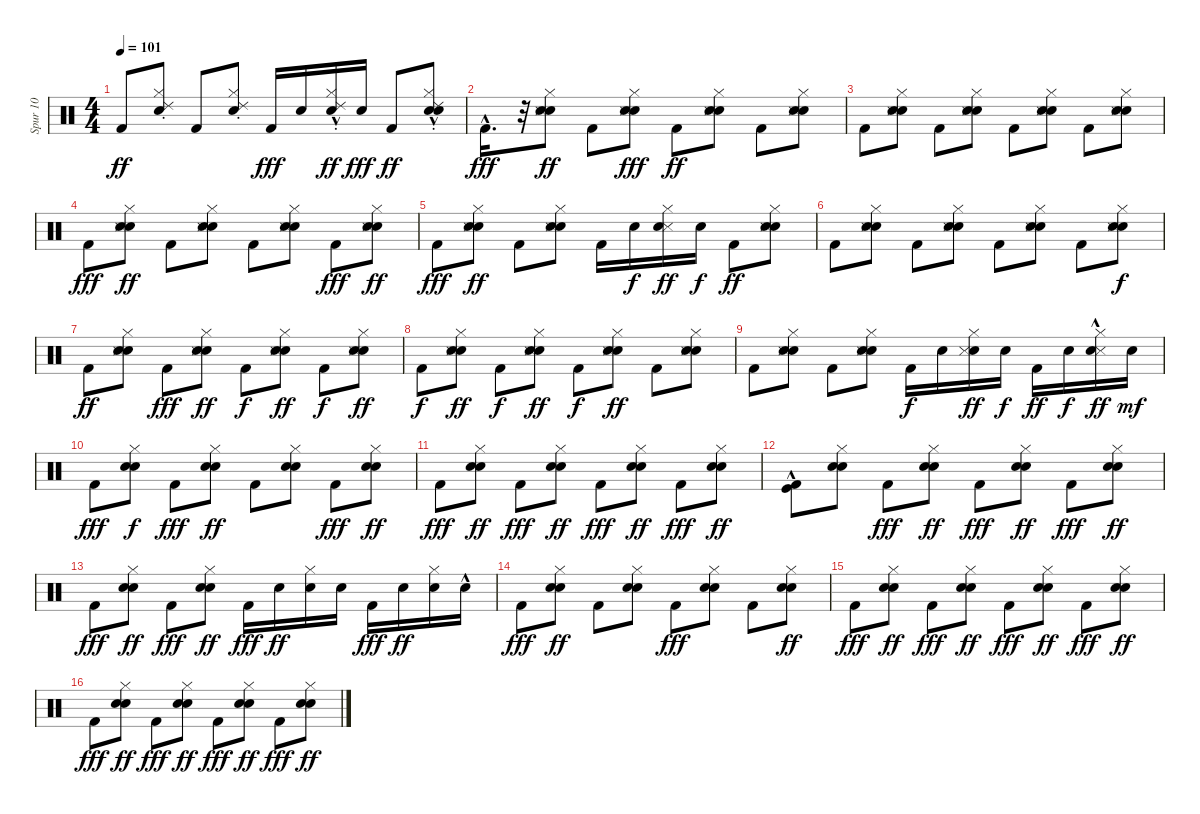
\track ("Spur 10" "Spur 10") {instrument percussion}
\staff {score}
\articulation defaults
\ts (4 4)
\tempo 101
\clef neutral
\ks c "Kick (hit) 2".8{dy ff}
("Ride (choke) 2" "Hi-Hat (closed)" "Snare (hit) 2").8 "Kick (hit) 2".8 ("Ride (choke) 2" "Hi-Hat (closed)" "Snare (hit) 2").8 "Kick (hit) 2".16{dy fff} "Snare (hit) 2".16 ("Ride (choke) 2"{hac} "Snare (hit) 2" "Hi-Hat (closed)").16{dy ff} "Snare (hit) 2".16{dy fff} "Kick (hit) 2".8{dy ff} ("Snare (hit) 2" "Ride (choke) 2"{hac} "Hi-Hat (closed)" "Snare (hit) 2").8 |
"Kick (hit) 2"{hac}.16{d dy fff} r.32 ("Snare (hit) 2" "Metronome (hit)" "Hi-Hat (closed)" "Snare (hit) 2").8{dy ff} "Kick (hit) 2".8 ("Snare (hit) 2" "Metronome (hit)" "Hi-Hat (closed)" "Snare (hit) 2").8{dy fff} "Kick (hit) 2".8{dy ff} ("Snare (hit) 2" "Metronome (hit)" "Snare (hit) 2" "Hi-Hat (closed)").8 "Kick (hit) 2".8 ("Snare (hit) 2" "Hi-Hat (closed)" "Snare (hit) 2" "Metronome (hit)").8 |
"Kick (hit) 2".8 ("Snare (hit) 2" "Hi-Hat (closed)" "Snare (hit) 2" "Metronome (hit)").8 "Kick (hit) 2".8 ("Snare (hit) 2" "Metronome (hit)" "Snare (hit) 2" "Hi-Hat (closed)").8 "Kick (hit) 2".8 ("Snare (hit) 2" "Snare (hit) 2" "Hi-Hat (closed)" "Metronome (hit)").8 "Kick (hit) 2".8 ("Snare (hit) 2" "Snare (hit) 2" "Hi-Hat (closed)" "Metronome (hit)").8 |
"Kick (hit) 2".8{dy fff} ("Snare (hit) 2" "Metronome (hit)" "Snare (hit) 2" "Hi-Hat (closed)").8{dy ff} "Kick (hit) 2".8 ("Snare (hit) 2" "Hi-Hat (closed)" "Snare (hit) 2" "Metronome (hit)").8 "Kick (hit) 2".8 ("Snare (hit) 2" "Hi-Hat (closed)" "Snare (hit) 2" "Metronome (hit)").8 "Kick (hit) 2".8{dy fff} ("Snare (hit) 2" "Metronome (hit)" "Snare (hit) 2" "Hi-Hat (closed)").8{dy ff} |
"Kick (hit) 2".8{dy fff} ("Snare (hit) 2" "Snare (hit) 2" "Hi-Hat (closed)" "Metronome (hit)").8{dy ff} "Kick (hit) 2".8 ("Snare (hit) 2" "Hi-Hat (closed)" "Snare (hit) 2" "Metronome (hit)").8 "Kick (hit) 2".16 "Snare (hit) 2".16{dy f} ("Metronome (hit)" "Hi-Hat (closed)" "Snare (hit) 2").16{dy ff} "Snare (hit) 2".16{dy f} "Kick (hit) 2".8{dy ff} ("Snare (hit) 2" "Metronome (hit)" "Hi-Hat (closed)" "Snare (hit) 2").8 |
"Kick (hit) 2".8 ("Snare (hit) 2" "Metronome (hit)" "Hi-Hat (closed)" "Snare (hit) 2").8 "Kick (hit) 2".8 ("Snare (hit) 2" "Metronome (hit)" "Hi-Hat (closed)" "Snare (hit) 2").8 "Kick (hit) 2".8 ("Snare (hit) 2" "Snare (hit) 2" "Hi-Hat (closed)" "Metronome (hit)").8 "Kick (hit) 2".8 ("Snare (hit) 2" "Metronome (hit)" "Hi-Hat (closed)" "Snare (hit) 2").8{dy f} |
"Kick (hit) 2".8{dy ff} ("Snare (hit) 2" "Metronome (hit)" "Hi-Hat (closed)" "Snare (hit) 2").8 "Kick (hit) 2".8{dy fff} ("Snare (hit) 2" "Metronome (hit)" "Hi-Hat (closed)" "Snare (hit) 2").8{dy ff} "Kick (hit) 2".8{dy f} ("Snare (hit) 2" "Metronome (hit)" "Hi-Hat (closed)" "Snare (hit) 2").8{dy ff} "Kick (hit) 2".8{dy f} ("Snare (hit) 2" "Metronome (hit)" "Hi-Hat (closed)" "Snare (hit) 2").8{dy ff} |
"Kick (hit) 2".8{dy f} ("Snare (hit) 2" "Hi-Hat (closed)" "Metronome (hit)" "Snare (hit) 2").8{dy ff} "Kick (hit) 2".8{dy f} ("Snare (hit) 2" "Snare (hit) 2" "Metronome (hit)" "Hi-Hat (closed)").8{dy ff} "Kick (hit) 2".8{dy f} ("Snare (hit) 2" "Hi-Hat (closed)" "Metronome (hit)" "Snare (hit) 2").8{dy ff} "Kick (hit) 2".8 ("Snare (hit) 2" "Hi-Hat (closed)" "Snare (hit) 2" "Metronome (hit)").8 |
"Kick (hit) 2".8 ("Snare (hit) 2" "Hi-Hat (closed)" "Snare (hit) 2" "Metronome (hit)").8 "Kick (hit) 2".8 ("Snare (hit) 2" "Hi-Hat (closed)" "Metronome (hit)" "Snare (hit) 2").8 "Kick (hit) 2".16{dy f} "Snare (hit) 2".16 ("Snare (hit) 2" "Hi-Hat (closed)" "Metronome (hit)").16{dy ff} "Snare (hit) 2".16{dy f} "Kick (hit) 2".16{dy ff} "Snare (hit) 2".16{dy f} ("Metronome (hit)" "Snare (hit) 2" "Hi-Hat (closed)"{hac}).16{dy ff} "Snare (hit) 2".16{dy mf} |
"Kick (hit) 2".8{dy fff} ("Snare (hit) 2" "Hi-Hat (closed)" "Snare (hit) 2").8{dy f} "Kick (hit) 2".8{dy fff} ("Snare (hit) 2" "Hi-Hat (closed)" "Snare (hit) 2").8{dy ff} "Kick (hit) 2".8 ("Snare (hit) 2" "Hi-Hat (closed)" "Snare (hit) 2").8 "Kick (hit) 2".8{dy fff} ("Snare (hit) 2" "Hi-Hat (closed)" "Snare (hit) 2").8{dy ff} |
"Kick (hit) 2".8{dy fff} ("Snare (hit) 2" "Snare (hit) 2" "Hi-Hat (closed)").8{dy ff} "Kick (hit) 2".8{dy fff} ("Snare (hit) 2" "Hi-Hat (closed)" "Snare (hit) 2").8{dy ff} "Kick (hit) 2".8{dy fff} ("Snare (hit) 2" "Hi-Hat (closed)" "Snare (hit) 2").8{dy ff} "Kick (hit) 2".8{dy fff} ("Snare (hit) 2" "Snare (hit) 2" "Hi-Hat (closed)").8{dy ff} |
("Kick (hit) 2" "Kick (hit)"{hac}).8 ("Snare (hit) 2" "Hi-Hat (closed)" "Snare (hit) 2").8 "Kick (hit) 2".8{dy fff} ("Snare (hit) 2" "Snare (hit) 2" "Hi-Hat (closed)").8{dy ff} "Kick (hit) 2".8{dy fff} ("Snare (hit) 2" "Snare (hit) 2" "Hi-Hat (closed)").8{dy ff} "Kick (hit) 2".8{dy fff} ("Snare (hit) 2" "Snare (hit) 2" "Hi-Hat (closed)").8{dy ff} |
"Kick (hit) 2".8{dy fff} ("Snare (hit) 2" "Hi-Hat (closed)" "Snare (hit) 2").8{dy ff} "Kick (hit) 2".8{dy fff} ("Snare (hit) 2" "Hi-Hat (closed)" "Snare (hit) 2").8{dy ff} "Kick (hit) 2".16{dy fff} "Snare (hit) 2".16{dy ff} ("Hi-Hat (closed)" "Snare (hit) 2").16 "Snare (hit) 2".16 "Kick (hit) 2".16{dy fff} "Snare (hit) 2".16{dy ff} ("Hi-Hat (closed)" "Snare (hit) 2").16 "Snare (hit) 2"{hac}.16 |
"Kick (hit) 2".8{dy fff} ("Snare (hit) 2" "Hi-Hat (closed)" "Snare (hit) 2").8{dy ff} "Kick (hit) 2".8 ("Snare (hit) 2" "Hi-Hat (closed)" "Snare (hit) 2").8 "Kick (hit) 2".8{dy fff} ("Snare (hit) 2" "Hi-Hat (closed)" "Snare (hit) 2").8 "Kick (hit) 2".8 ("Snare (hit) 2" "Snare (hit) 2" "Hi-Hat (closed)").8{dy ff} |
"Kick (hit) 2".8{dy fff} ("Snare (hit) 2" "Snare (hit) 2" "Hi-Hat (closed)").8{dy ff} "Kick (hit) 2".8{dy fff} ("Snare (hit) 2" "Snare (hit) 2" "Hi-Hat (closed)").8{dy ff} "Kick (hit) 2".8{dy fff} ("Snare (hit) 2" "Snare (hit) 2" "Hi-Hat (closed)").8{dy ff} "Kick (hit) 2".8{dy fff} ("Snare (hit) 2" "Snare (hit) 2" "Hi-Hat (closed)").8{dy ff} |
"Kick (hit) 2".8{dy fff} ("Snare (hit) 2" "Hi-Hat (closed)" "Snare (hit) 2").8{dy ff} "Kick (hit) 2".8{dy fff} ("Snare (hit) 2" "Snare (hit) 2" "Hi-Hat (closed)").8{dy ff} "Kick (hit) 2".8{dy fff} ("Snare (hit) 2" "Snare (hit) 2" "Hi-Hat (closed)").8{dy ff} "Kick (hit) 2".8{dy fff} ("Snare (hit) 2" "Snare (hit) 2" "Hi-Hat (closed)").8{dy ff}
